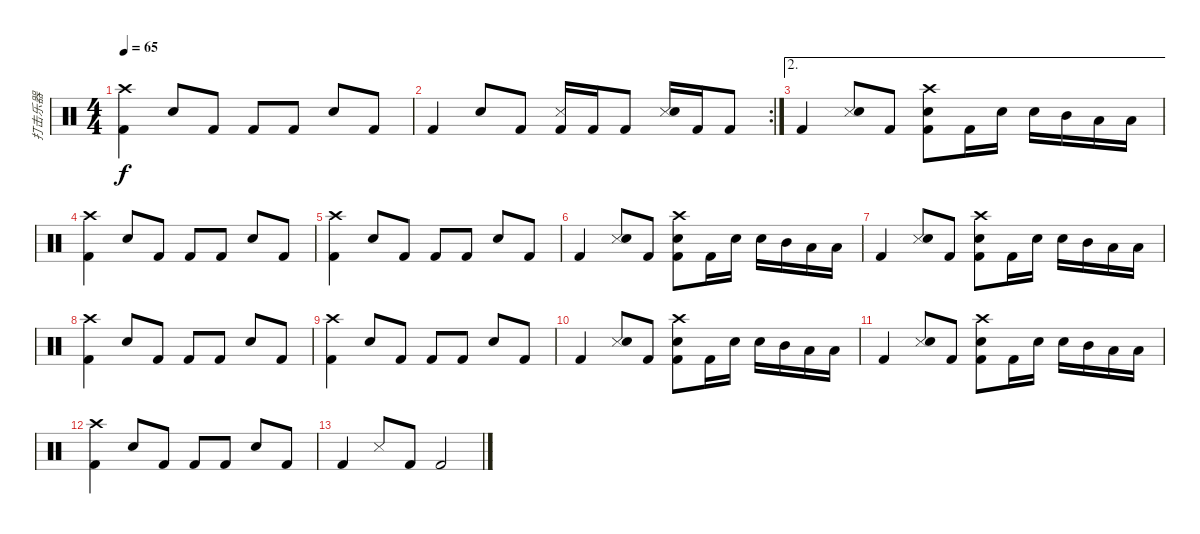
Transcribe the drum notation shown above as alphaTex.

\track ("打击乐器" "打击乐器") {instrument percussion}
\staff {score}
\articulation defaults
\ts (4 4)
\tempo 65
\clef neutral
\ks c
("Crash high (hit)" "Kick (hit) 2").4{dy f} "Snare (hit) 2".8 "Kick (hit) 2".8 "Kick (hit) 2".8 "Kick (hit) 2".8 "Snare (hit) 2".8 "Kick (hit) 2".8 |
\rc 2 "Kick (hit) 2".4 "Snare (hit) 2".8 "Kick (hit) 2".8
("Snare (side stick) 3" "Kick (hit) 2").16 "Kick (hit) 2".16 "Kick (hit) 2".8 ("Snare (side stick) 3" "Snare (hit) 2").16 "Kick (hit) 2".16 "Kick (hit) 2".8 |
\ae 2 "Kick (hit) 2".4
("Snare (side stick) 3" "Snare (hit) 2").8 "Kick (hit) 2".8 ("Crash high (hit)" "Kick (hit) 2" "Snare (hit) 2").8 "Kick (hit) 2".16 "Snare (hit) 2".16 "Snare (hit) 2".16 "Mid Tom (hit)".16 "Low Tom (hit)".16 "Low Floor Tom (hit)".16 |
("Crash high (hit)" "Kick (hit) 2").4 "Snare (hit) 2".8 "Kick (hit) 2".8 "Kick (hit) 2".8 "Kick (hit) 2".8 "Snare (hit) 2".8 "Kick (hit) 2".8 |
("Crash high (hit)" "Kick (hit) 2").4 "Snare (hit) 2".8 "Kick (hit) 2".8 "Kick (hit) 2".8 "Kick (hit) 2".8 "Snare (hit) 2".8 "Kick (hit) 2".8 |
"Kick (hit) 2".4 ("Snare (side stick) 3" "Snare (hit) 2").8 "Kick (hit) 2".8 ("Crash high (hit)" "Kick (hit) 2" "Snare (hit) 2").8 "Kick (hit) 2".16 "Snare (hit) 2".16 "Snare (hit) 2".16 "Mid Tom (hit)".16 "Low Tom (hit)".16 "Low Floor Tom (hit)".16 |
"Kick (hit) 2".4 ("Snare (side stick) 3" "Snare (hit) 2").8 "Kick (hit) 2".8 ("Crash high (hit)" "Kick (hit) 2" "Snare (hit) 2").8 "Kick (hit) 2".16 "Snare (hit) 2".16 "Snare (hit) 2".16 "Mid Tom (hit)".16 "Low Tom (hit)".16 "Low Floor Tom (hit)".16 |
("Crash high (hit)" "Kick (hit) 2").4 "Snare (hit) 2".8 "Kick (hit) 2".8 "Kick (hit) 2".8 "Kick (hit) 2".8 "Snare (hit) 2".8 "Kick (hit) 2".8 |
("Crash high (hit)" "Kick (hit) 2").4 "Snare (hit) 2".8 "Kick (hit) 2".8 "Kick (hit) 2".8 "Kick (hit) 2".8 "Snare (hit) 2".8 "Kick (hit) 2".8 |
"Kick (hit) 2".4 ("Snare (side stick) 3" "Snare (hit) 2").8 "Kick (hit) 2".8 ("Crash high (hit)" "Kick (hit) 2" "Snare (hit) 2").8 "Kick (hit) 2".16 "Snare (hit) 2".16 "Snare (hit) 2".16 "Mid Tom (hit)".16 "Low Tom (hit)".16 "Low Floor Tom (hit)".16 |
"Kick (hit) 2".4 ("Snare (side stick) 3" "Snare (hit) 2").8 "Kick (hit) 2".8 ("Crash high (hit)" "Kick (hit) 2" "Snare (hit) 2").8 "Kick (hit) 2".16 "Snare (hit) 2".16 "Snare (hit) 2".16 "Mid Tom (hit)".16 "Low Tom (hit)".16 "Low Floor Tom (hit)".16 |
("Crash high (hit)" "Kick (hit) 2").4 "Snare (hit) 2".8 "Kick (hit) 2".8 "Kick (hit) 2".8 "Kick (hit) 2".8 "Snare (hit) 2".8 "Kick (hit) 2".8 |
"Kick (hit) 2".4{txt " "} "Snare (side stick) 3".8 "Kick (hit) 2".8 "Kick (hit) 2".2
